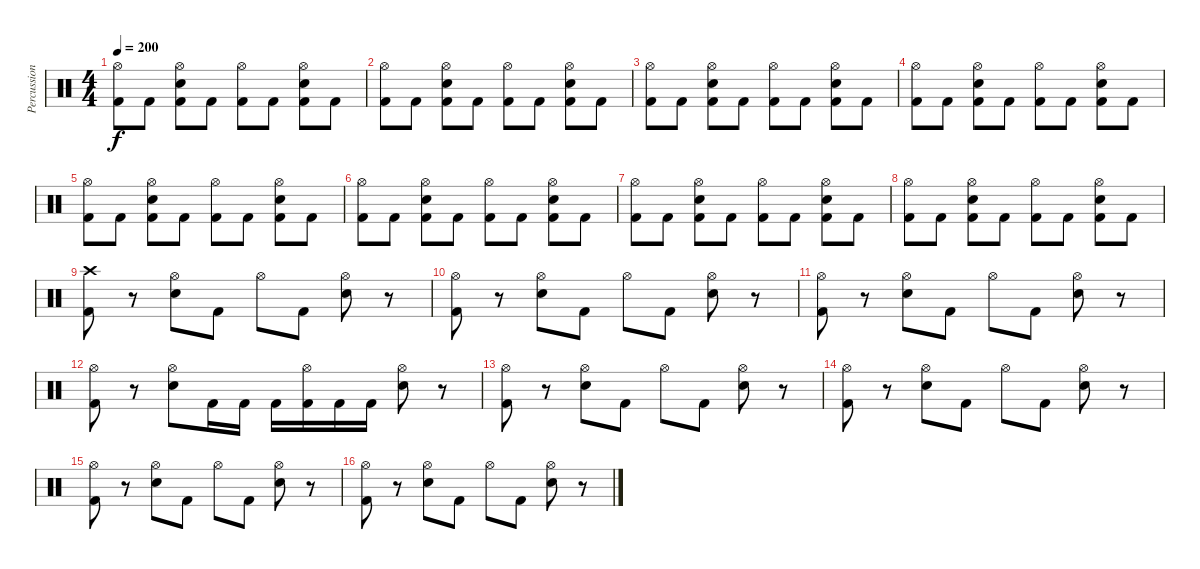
\track ("Percussion" "Percussion") {instrument percussion}
\staff {score}
\articulation defaults
\ts (4 4)
\tempo 200
\clef neutral
\ks c
("Hi-Hat (open)" "Kick (hit) 2").8{dy f} "Kick (hit) 2".8 ("Hi-Hat (open)" "Electric Snare (hit)" "Kick (hit) 2").8 "Kick (hit) 2".8 ("Hi-Hat (open)" "Kick (hit) 2").8 "Kick (hit) 2".8 ("Hi-Hat (open)" "Electric Snare (hit)" "Kick (hit) 2").8 "Kick (hit) 2".8 |
("Hi-Hat (open)" "Kick (hit) 2").8 "Kick (hit) 2".8 ("Hi-Hat (open)" "Electric Snare (hit)" "Kick (hit) 2").8 "Kick (hit) 2".8 ("Hi-Hat (open)" "Kick (hit) 2").8 "Kick (hit) 2".8 ("Hi-Hat (open)" "Electric Snare (hit)" "Kick (hit) 2").8 "Kick (hit) 2".8 |
("Hi-Hat (open)" "Kick (hit) 2").8 "Kick (hit) 2".8 ("Hi-Hat (open)" "Electric Snare (hit)" "Kick (hit) 2").8 "Kick (hit) 2".8 ("Hi-Hat (open)" "Kick (hit) 2").8 "Kick (hit) 2".8 ("Hi-Hat (open)" "Electric Snare (hit)" "Kick (hit) 2").8 "Kick (hit) 2".8 |
("Hi-Hat (open)" "Kick (hit) 2").8 "Kick (hit) 2".8 ("Hi-Hat (open)" "Electric Snare (hit)" "Kick (hit) 2").8 "Kick (hit) 2".8 ("Hi-Hat (open)" "Kick (hit) 2").8 "Kick (hit) 2".8 ("Hi-Hat (open)" "Electric Snare (hit)" "Kick (hit) 2").8 "Kick (hit) 2".8 |
("Hi-Hat (open)" "Kick (hit) 2").8 "Kick (hit) 2".8 ("Hi-Hat (open)" "Electric Snare (hit)" "Kick (hit) 2").8 "Kick (hit) 2".8 ("Hi-Hat (open)" "Kick (hit) 2").8 "Kick (hit) 2".8 ("Hi-Hat (open)" "Electric Snare (hit)" "Kick (hit) 2").8 "Kick (hit) 2".8 |
("Hi-Hat (open)" "Kick (hit) 2").8 "Kick (hit) 2".8 ("Hi-Hat (open)" "Electric Snare (hit)" "Kick (hit) 2").8 "Kick (hit) 2".8 ("Hi-Hat (open)" "Kick (hit) 2").8 "Kick (hit) 2".8 ("Hi-Hat (open)" "Electric Snare (hit)" "Kick (hit) 2").8 "Kick (hit) 2".8 |
("Hi-Hat (open)" "Kick (hit) 2").8 "Kick (hit) 2".8 ("Hi-Hat (open)" "Electric Snare (hit)" "Kick (hit) 2").8 "Kick (hit) 2".8 ("Hi-Hat (open)" "Kick (hit) 2").8 "Kick (hit) 2".8 ("Hi-Hat (open)" "Electric Snare (hit)" "Kick (hit) 2").8 "Kick (hit) 2".8 |
("Hi-Hat (open)" "Kick (hit) 2").8 "Kick (hit) 2".8 ("Hi-Hat (open)" "Electric Snare (hit)" "Kick (hit) 2").8 "Kick (hit) 2".8 ("Hi-Hat (open)" "Kick (hit) 2").8 "Kick (hit) 2".8 ("Hi-Hat (open)" "Electric Snare (hit)" "Kick (hit) 2").8 "Kick (hit) 2".8 |
("Crash high (hit)" "Kick (hit) 2").8 r.8 ("Hi-Hat (open)" "Electric Snare (hit)").8 "Kick (hit) 2".8 "Hi-Hat (open)".8 "Kick (hit) 2".8 ("Hi-Hat (open)" "Electric Snare (hit)").8 r.8 |
("Hi-Hat (open)" "Kick (hit) 2").8 r.8 ("Hi-Hat (open)" "Electric Snare (hit)").8 "Kick (hit) 2".8 "Hi-Hat (open)".8 "Kick (hit) 2".8 ("Hi-Hat (open)" "Electric Snare (hit)").8 r.8 |
("Hi-Hat (open)" "Kick (hit) 2").8 r.8 ("Hi-Hat (open)" "Electric Snare (hit)").8 "Kick (hit) 2".8 "Hi-Hat (open)".8 "Kick (hit) 2".8 ("Hi-Hat (open)" "Electric Snare (hit)").8 r.8 |
("Hi-Hat (open)" "Kick (hit) 2").8 r.8 ("Hi-Hat (open)" "Electric Snare (hit)").8 "Kick (hit) 2".16 "Kick (hit) 2".16 "Kick (hit) 2".16 ("Hi-Hat (open)" "Kick (hit) 2").16 "Kick (hit) 2".16 "Kick (hit) 2".16 ("Hi-Hat (open)" "Electric Snare (hit)").8 r.8 |
("Hi-Hat (open)" "Kick (hit) 2").8 r.8 ("Hi-Hat (open)" "Electric Snare (hit)").8 "Kick (hit) 2".8 "Hi-Hat (open)".8 "Kick (hit) 2".8 ("Hi-Hat (open)" "Electric Snare (hit)").8 r.8 |
("Hi-Hat (open)" "Kick (hit) 2").8 r.8 ("Hi-Hat (open)" "Electric Snare (hit)").8 "Kick (hit) 2".8 "Hi-Hat (open)".8 "Kick (hit) 2".8 ("Hi-Hat (open)" "Electric Snare (hit)").8 r.8 |
("Hi-Hat (open)" "Kick (hit) 2").8 r.8 ("Hi-Hat (open)" "Electric Snare (hit)").8 "Kick (hit) 2".8 "Hi-Hat (open)".8 "Kick (hit) 2".8 ("Hi-Hat (open)" "Electric Snare (hit)").8 r.8 |
("Hi-Hat (open)" "Kick (hit) 2").8 r.8 ("Hi-Hat (open)" "Electric Snare (hit)").8 "Kick (hit) 2".8 "Hi-Hat (open)".8 "Kick (hit) 2".8 ("Hi-Hat (open)" "Electric Snare (hit)").8 r.8
